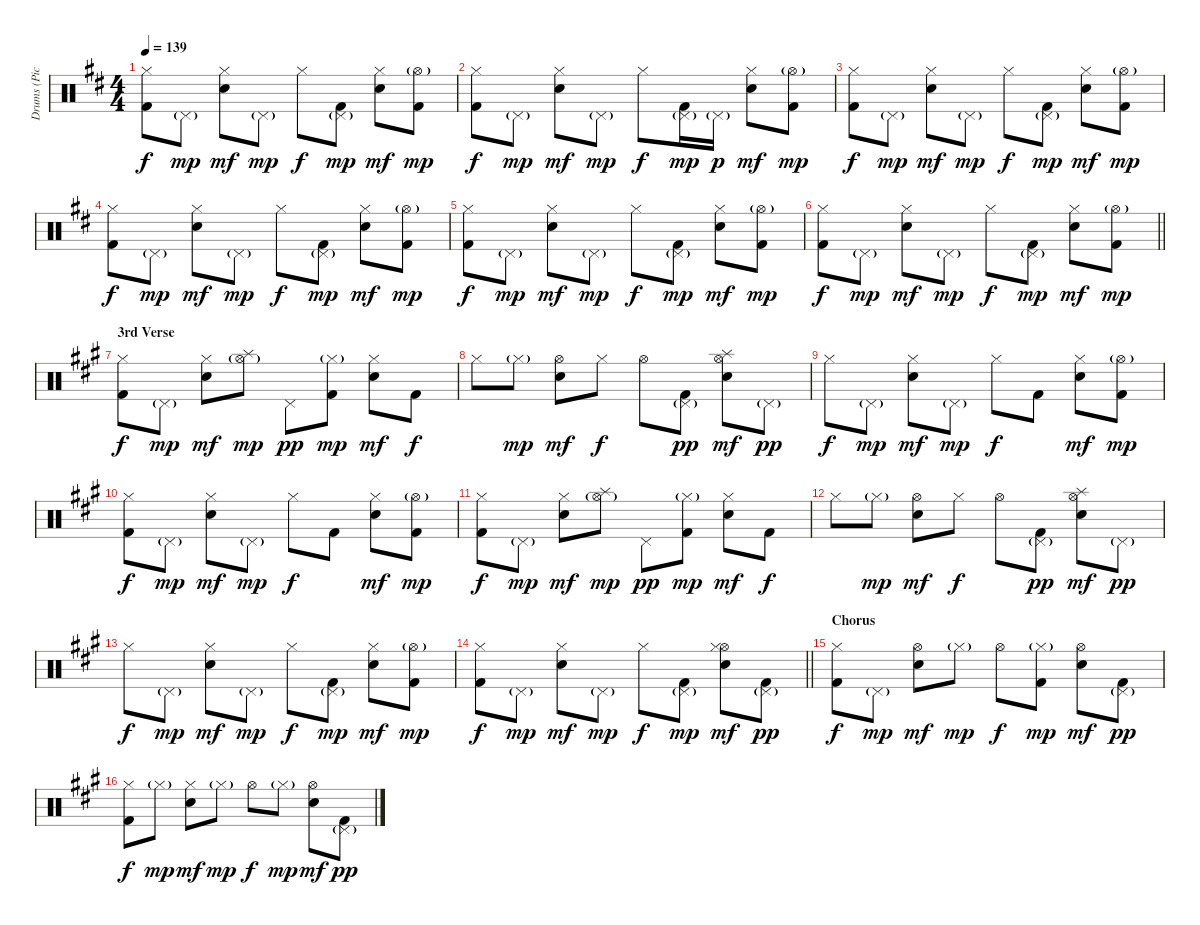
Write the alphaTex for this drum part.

\track ("Drums (Pick)" "Drums (Pic") {instrument percussion}
\staff {score}
\articulation defaults
\ts (4 4)
\tempo 139
\clef neutral
\ks d
("Hi-Hat (closed)" "Kick (hit) 2").8{dy f} "Pedal Hi-Hat (hit)"{g}.8{dy mp} ("Hi-Hat (closed)" "Snare (hit) 2").8{dy mf} "Pedal Hi-Hat (hit)"{g}.8{dy mp} "Hi-Hat (closed)".8{dy f} ("Kick (hit) 2" "Pedal Hi-Hat (hit)"{g}).8{dy mp} ("Hi-Hat (closed)" "Snare (hit) 2").8{dy mf} ("Hi-Hat (open)"{g} "Kick (hit) 2").8{dy mp} |
("Hi-Hat (closed)" "Kick (hit) 2").8{dy f} "Pedal Hi-Hat (hit)"{g}.8{dy mp} ("Hi-Hat (closed)" "Snare (hit) 2").8{dy mf} "Pedal Hi-Hat (hit)"{g}.8{dy mp} "Hi-Hat (closed)".8{dy f} ("Kick (hit) 2" "Pedal Hi-Hat (hit)"{g}).16{dy mp} "Pedal Hi-Hat (hit)"{g}.16{dy p} ("Snare (hit) 2" "Hi-Hat (closed)").8{dy mf} ("Kick (hit) 2" "Hi-Hat (open)"{g}).8{dy mp} |
("Hi-Hat (closed)" "Kick (hit) 2").8{dy f} "Pedal Hi-Hat (hit)"{g}.8{dy mp} ("Snare (hit) 2" "Hi-Hat (closed)").8{dy mf} "Pedal Hi-Hat (hit)"{g}.8{dy mp} "Hi-Hat (closed)".8{dy f} ("Kick (hit) 2" "Pedal Hi-Hat (hit)"{g}).8{dy mp} ("Hi-Hat (closed)" "Snare (hit) 2").8{dy mf} ("Hi-Hat (open)"{g} "Kick (hit) 2").8{dy mp} |
("Kick (hit) 2" "Hi-Hat (closed)").8{dy f} "Pedal Hi-Hat (hit)"{g}.8{dy mp} ("Hi-Hat (closed)" "Snare (hit) 2").8{dy mf} "Pedal Hi-Hat (hit)"{g}.8{dy mp} "Hi-Hat (closed)".8{dy f} ("Pedal Hi-Hat (hit)"{g} "Kick (hit) 2").8{dy mp} ("Snare (hit) 2" "Hi-Hat (closed)").8{dy mf} ("Kick (hit) 2" "Hi-Hat (open)"{g}).8{dy mp} |
("Kick (hit) 2" "Hi-Hat (closed)").8{dy f} "Pedal Hi-Hat (hit)"{g}.8{dy mp} ("Hi-Hat (closed)" "Snare (hit) 2").8{dy mf} "Pedal Hi-Hat (hit)"{g}.8{dy mp} "Hi-Hat (closed)".8{dy f} ("Pedal Hi-Hat (hit)"{g} "Kick (hit) 2").8{dy mp} ("Snare (hit) 2" "Hi-Hat (closed)").8{dy mf} ("Kick (hit) 2" "Hi-Hat (open)"{g}).8{dy mp} |
\barLineRight lightlight
("Kick (hit) 2" "Hi-Hat (closed)").8{dy f} "Pedal Hi-Hat (hit)"{g}.8{dy mp} ("Snare (hit) 2" "Hi-Hat (closed)").8{dy mf} "Pedal Hi-Hat (hit)"{g}.8{dy mp} "Hi-Hat (closed)".8{dy f} ("Pedal Hi-Hat (hit)"{g} "Kick (hit) 2").8{dy mp} ("Hi-Hat (closed)" "Snare (hit) 2").8{dy mf} ("Kick (hit) 2" "Hi-Hat (open)"{g}).8{dy mp} |
\section ("" "3rd Verse")
\ks a
("Kick (hit) 2" "Hi-Hat (closed)").8{dy f} "Pedal Hi-Hat (hit)"{g}.8{dy mp} ("Snare (hit) 2" "Hi-Hat (closed)").8{dy mf} ("Splash (hit)" "Hi-Hat (open)"{g}).8{dy mp} "Pedal Hi-Hat (hit)".8{dy pp} ("Hi-Hat (closed)"{g} "Kick (hit) 2").8{dy mp} ("Snare (hit) 2" "Hi-Hat (closed)").8{dy mf} "Kick (hit) 2".8{dy f} |
"Hi-Hat (closed)".8 "Hi-Hat (closed)"{g}.8{dy mp} ("Snare (hit) 2" "Hi-Hat (open)").8{dy mf} "Hi-Hat (closed)".8{dy f} "Hi-Hat (open)".8 ("Kick (hit) 2" "Pedal Hi-Hat (hit)"{g}).8{dy pp} ("Snare (hit) 2" "Hi-Hat (open)" "Splash (hit)").8{dy mf} "Pedal Hi-Hat (hit)"{g}.8{dy pp} |
"Hi-Hat (closed)".8{dy f} "Pedal Hi-Hat (hit)"{g}.8{dy mp} ("Hi-Hat (closed)" "Snare (hit) 2").8{dy mf} "Pedal Hi-Hat (hit)"{g}.8{dy mp} "Hi-Hat (closed)".8{dy f} "Kick (hit) 2".8 ("Snare (hit) 2" "Hi-Hat (closed)").8{dy mf} ("Kick (hit) 2" "Hi-Hat (open)"{g}).8{dy mp} |
("Kick (hit) 2" "Hi-Hat (closed)").8{dy f} "Pedal Hi-Hat (hit)"{g}.8{dy mp} ("Snare (hit) 2" "Hi-Hat (closed)").8{dy mf} "Pedal Hi-Hat (hit)"{g}.8{dy mp} "Hi-Hat (closed)".8{dy f} "Kick (hit) 2".8 ("Hi-Hat (closed)" "Snare (hit) 2").8{dy mf} ("Hi-Hat (open)"{g} "Kick (hit) 2").8{dy mp} |
("Kick (hit) 2" "Hi-Hat (closed)").8{dy f} "Pedal Hi-Hat (hit)"{g}.8{dy mp} ("Hi-Hat (closed)" "Snare (hit) 2").8{dy mf} ("Splash (hit)" "Hi-Hat (open)"{g}).8{dy mp} "Pedal Hi-Hat (hit)".8{dy pp} ("Hi-Hat (closed)"{g} "Kick (hit) 2").8{dy mp} ("Snare (hit) 2" "Hi-Hat (closed)").8{dy mf} "Kick (hit) 2".8{dy f} |
"Hi-Hat (closed)".8 "Hi-Hat (closed)"{g}.8{dy mp} ("Hi-Hat (open)" "Snare (hit) 2").8{dy mf} "Hi-Hat (closed)".8{dy f} "Hi-Hat (open)".8 ("Kick (hit) 2" "Pedal Hi-Hat (hit)"{g}).8{dy pp} ("Splash (hit)" "Snare (hit) 2" "Hi-Hat (open)").8{dy mf} "Pedal Hi-Hat (hit)"{g}.8{dy pp} |
"Hi-Hat (closed)".8{dy f} "Pedal Hi-Hat (hit)"{g}.8{dy mp} ("Snare (hit) 2" "Hi-Hat (closed)").8{dy mf} "Pedal Hi-Hat (hit)"{g}.8{dy mp} "Hi-Hat (closed)".8{dy f} ("Kick (hit) 2" "Pedal Hi-Hat (hit)"{g}).8{dy mp} ("Snare (hit) 2" "Hi-Hat (closed)").8{dy mf} ("Kick (hit) 2" "Hi-Hat (open)"{g}).8{dy mp} |
\barLineRight lightlight
("Hi-Hat (closed)" "Kick (hit) 2").8{dy f} "Pedal Hi-Hat (hit)"{g}.8{dy mp} ("Snare (hit) 2" "Hi-Hat (closed)").8{dy mf} "Pedal Hi-Hat (hit)"{g}.8{dy mp} "Hi-Hat (closed)".8{dy f} ("Kick (hit) 2" "Pedal Hi-Hat (hit)"{g}).8{dy mp} ("Snare (hit) 2" "Hi-Hat (open)" "Hi-Hat (closed)").8{dy mf} ("Kick (hit) 2" "Pedal Hi-Hat (hit)"{g}).8{dy pp} |
\section ("" "Chorus")
("Hi-Hat (closed)" "Kick (hit) 2").8{dy f} "Pedal Hi-Hat (hit)"{g}.8{dy mp} ("Snare (hit) 2" "Hi-Hat (open)").8{dy mf} "Hi-Hat (closed)"{g}.8{dy mp} "Hi-Hat (open)".8{dy f} ("Kick (hit) 2" "Hi-Hat (closed)"{g}).8{dy mp} ("Hi-Hat (open)" "Snare (hit) 2").8{dy mf} ("Kick (hit) 2" "Pedal Hi-Hat (hit)"{g}).8{dy pp} |
("Hi-Hat (closed)" "Kick (hit) 2").8{dy f} "Hi-Hat (closed)"{g}.8{dy mp} ("Snare (hit) 2" "Hi-Hat (closed)").8{dy mf} "Hi-Hat (closed)"{g}.8{dy mp} "Hi-Hat (open)".8{dy f} "Hi-Hat (closed)"{g}.8{dy mp} ("Hi-Hat (open)" "Snare (hit) 2").8{dy mf} ("Kick (hit) 2" "Pedal Hi-Hat (hit)"{g}).8{dy pp}
